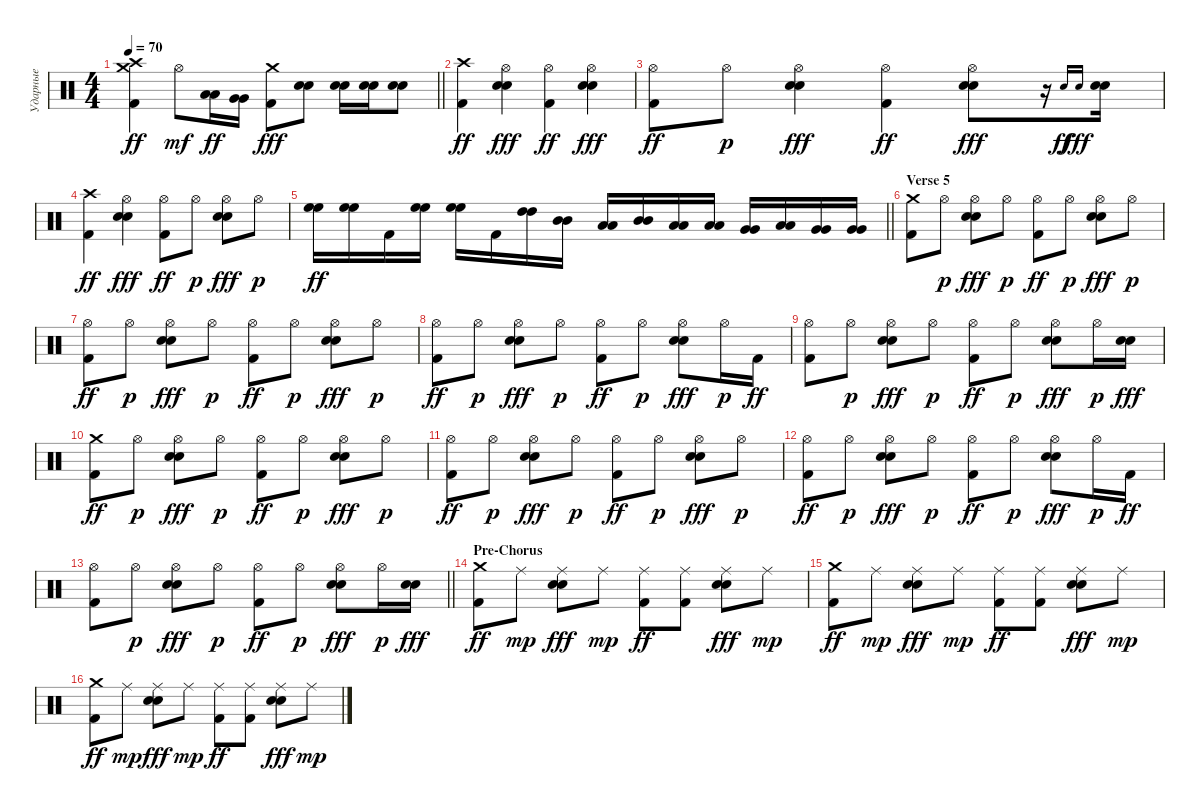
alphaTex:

\track ("Ударные" "Ударные") {instrument percussion}
\staff {score}
\articulation defaults
\ts (4 4)
\tempo 70
\clef neutral
\barLineRight lightlight
\ks aminor
("Crash medium (hit)" "Crash high (hit)" "Kick (hit) 2").4{dy ff} "Hi-Hat (open)".8{dy mf} ("Low Tom (hit)" "Low Tom (hit)").16{dy ff} ("Very Low Tom (hit)" "Very Low Tom (hit)").16 ("Crash medium (hit)" "Kick (hit) 2").8{dy fff} ("Snare (hit) 2" "Electric Snare (hit)").8 ("Snare (hit) 2" "Electric Snare (hit)").16 ("Snare (hit) 2" "Electric Snare (hit)").16 ("Snare (hit) 2" "Electric Snare (hit)").8 |
("Crash high (hit)" "Kick (hit) 2").4{dy ff} ("Hi-Hat (open)" "Snare (hit) 2" "Electric Snare (hit)").4{dy fff} ("Hi-Hat (open)" "Kick (hit) 2").4{dy ff} ("Hi-Hat (open)" "Snare (hit) 2" "Electric Snare (hit)").4{dy fff} |
("Hi-Hat (open)" "Kick (hit) 2").8{dy ff} "Hi-Hat (open)".8{dy p} ("Hi-Hat (open)" "Snare (hit) 2" "Electric Snare (hit)").4{dy fff} ("Hi-Hat (open)" "Kick (hit) 2").4{dy ff} ("Hi-Hat (open)" "Snare (hit) 2" "Electric Snare (hit)").8{dy fff} r.16 "Snare (hit) 2".16{gr onbeat dy ff} "Electric Snare (hit)".16{gr onbeat dy fff} ("Snare (hit) 2" "Electric Snare (hit)").16 |
("Crash high (hit)" "Kick (hit) 2").4{dy ff} ("Hi-Hat (open)" "Snare (hit) 2" "Electric Snare (hit)").4{dy fff} ("Hi-Hat (open)" "Kick (hit) 2").8{dy ff} "Hi-Hat (open)".8{dy p} ("Hi-Hat (open)" "Snare (hit) 2" "Electric Snare (hit)").8{dy fff} "Hi-Hat (open)".8{dy p} |
\barLineRight lightlight
("High Floor Tom (hit)" "High Floor Tom (hit)").16{dy ff} ("High Floor Tom (hit)" "High Floor Tom (hit)").16 "Kick (hit) 2".16 ("High Floor Tom (hit)" "High Floor Tom (hit)").16 ("High Floor Tom (hit)" "High Floor Tom (hit)").16 "Kick (hit) 2".16 ("High Tom (hit)" "High Tom (hit)").16 ("Mid Tom (hit)" "Mid Tom (hit)").16 ("Low Tom (hit)" "Low Tom (hit)").16 ("Mid Tom (hit)" "Mid Tom (hit)").16 ("Low Tom (hit)" "Low Tom (hit)").16 ("Low Tom (hit)" "Low Tom (hit)").16 ("Very Low Tom (hit)" "Very Low Tom (hit)").16 ("Low Floor Tom (hit)" "Low Floor Tom (hit)").16 ("Very Low Tom (hit)" "Very Low Tom (hit)").16 ("Very Low Tom (hit)" "Very Low Tom (hit)").16 |
\section ("" "Verse 5")
("Crash medium (hit)" "Kick (hit) 2").8 "Hi-Hat (open)".8{dy p} ("Hi-Hat (open)" "Snare (hit) 2" "Electric Snare (hit)").8{dy fff} "Hi-Hat (open)".8{dy p} ("Hi-Hat (open)" "Kick (hit) 2").8{dy ff} "Hi-Hat (open)".8{dy p} ("Hi-Hat (open)" "Snare (hit) 2" "Electric Snare (hit)").8{dy fff} "Hi-Hat (open)".8{dy p} |
("Hi-Hat (open)" "Kick (hit) 2").8{dy ff} "Hi-Hat (open)".8{dy p} ("Hi-Hat (open)" "Snare (hit) 2" "Electric Snare (hit)").8{dy fff} "Hi-Hat (open)".8{dy p} ("Hi-Hat (open)" "Kick (hit) 2").8{dy ff} "Hi-Hat (open)".8{dy p} ("Hi-Hat (open)" "Snare (hit) 2" "Electric Snare (hit)").8{dy fff} "Hi-Hat (open)".8{dy p} |
("Hi-Hat (open)" "Kick (hit) 2").8{dy ff} "Hi-Hat (open)".8{dy p} ("Hi-Hat (open)" "Snare (hit) 2" "Electric Snare (hit)").8{dy fff} "Hi-Hat (open)".8{dy p} ("Hi-Hat (open)" "Kick (hit) 2").8{dy ff} "Hi-Hat (open)".8{dy p} ("Hi-Hat (open)" "Snare (hit) 2" "Electric Snare (hit)").8{dy fff} "Hi-Hat (open)".16{dy p} "Kick (hit) 2".16{dy ff} |
("Hi-Hat (open)" "Kick (hit) 2").8 "Hi-Hat (open)".8{dy p} ("Hi-Hat (open)" "Snare (hit) 2" "Electric Snare (hit)").8{dy fff} "Hi-Hat (open)".8{dy p} ("Hi-Hat (open)" "Kick (hit) 2").8{dy ff} "Hi-Hat (open)".8{dy p} ("Hi-Hat (open)" "Snare (hit) 2" "Electric Snare (hit)").8{dy fff} "Hi-Hat (open)".16{dy p} ("Snare (hit) 2" "Electric Snare (hit)").16{dy fff} |
("Crash medium (hit)" "Kick (hit) 2").8{dy ff} "Hi-Hat (open)".8{dy p} ("Hi-Hat (open)" "Snare (hit) 2" "Electric Snare (hit)").8{dy fff} "Hi-Hat (open)".8{dy p} ("Hi-Hat (open)" "Kick (hit) 2").8{dy ff} "Hi-Hat (open)".8{dy p} ("Hi-Hat (open)" "Snare (hit) 2" "Electric Snare (hit)").8{dy fff} "Hi-Hat (open)".8{dy p} |
("Hi-Hat (open)" "Kick (hit) 2").8{dy ff} "Hi-Hat (open)".8{dy p} ("Hi-Hat (open)" "Snare (hit) 2" "Electric Snare (hit)").8{dy fff} "Hi-Hat (open)".8{dy p} ("Hi-Hat (open)" "Kick (hit) 2").8{dy ff} "Hi-Hat (open)".8{dy p} ("Hi-Hat (open)" "Snare (hit) 2" "Electric Snare (hit)").8{dy fff} "Hi-Hat (open)".8{dy p} |
("Hi-Hat (open)" "Kick (hit) 2").8{dy ff} "Hi-Hat (open)".8{dy p} ("Hi-Hat (open)" "Snare (hit) 2" "Electric Snare (hit)").8{dy fff} "Hi-Hat (open)".8{dy p} ("Hi-Hat (open)" "Kick (hit) 2").8{dy ff} "Hi-Hat (open)".8{dy p} ("Hi-Hat (open)" "Snare (hit) 2" "Electric Snare (hit)").8{dy fff} "Hi-Hat (open)".16{dy p} "Kick (hit) 2".16{dy ff} |
\barLineRight lightlight
("Hi-Hat (open)" "Kick (hit) 2").8 "Hi-Hat (open)".8{dy p} ("Hi-Hat (open)" "Snare (hit) 2" "Electric Snare (hit)").8{dy fff} "Hi-Hat (open)".8{dy p} ("Hi-Hat (open)" "Kick (hit) 2").8{dy ff} "Hi-Hat (open)".8{dy p} ("Hi-Hat (open)" "Snare (hit) 2" "Electric Snare (hit)").8{dy fff} "Hi-Hat (open)".16{dy p} ("Snare (hit) 2" "Electric Snare (hit)").16{dy fff} |
\section ("" "Pre-Chorus")
("Crash medium (hit)" "Kick (hit) 2").8{dy ff} "Ride (middle)".8{dy mp} ("Ride (middle)" "Snare (hit) 2" "Electric Snare (hit)").8{dy fff} "Ride (middle)".8{dy mp} ("Ride (middle)" "Kick (hit) 2").8{dy ff} ("Ride (middle)" "Kick (hit) 2").8 ("Ride (middle)" "Snare (hit) 2" "Electric Snare (hit)").8{dy fff} "Ride (middle)".8{dy mp} |
("Crash medium (hit)" "Kick (hit) 2").8{dy ff} "Ride (middle)".8{dy mp} ("Ride (middle)" "Snare (hit) 2" "Electric Snare (hit)").8{dy fff} "Ride (middle)".8{dy mp} ("Ride (middle)" "Kick (hit) 2").8{dy ff} ("Ride (middle)" "Kick (hit) 2").8 ("Ride (middle)" "Snare (hit) 2" "Electric Snare (hit)").8{dy fff} "Ride (middle)".8{dy mp} |
("Crash medium (hit)" "Kick (hit) 2").8{dy ff} "Ride (middle)".8{dy mp} ("Ride (middle)" "Snare (hit) 2" "Electric Snare (hit)").8{dy fff} "Ride (middle)".8{dy mp} ("Ride (middle)" "Kick (hit) 2").8{dy ff} ("Ride (middle)" "Kick (hit) 2").8 ("Ride (middle)" "Snare (hit) 2" "Electric Snare (hit)").8{dy fff} "Ride (middle)".8{dy mp}
